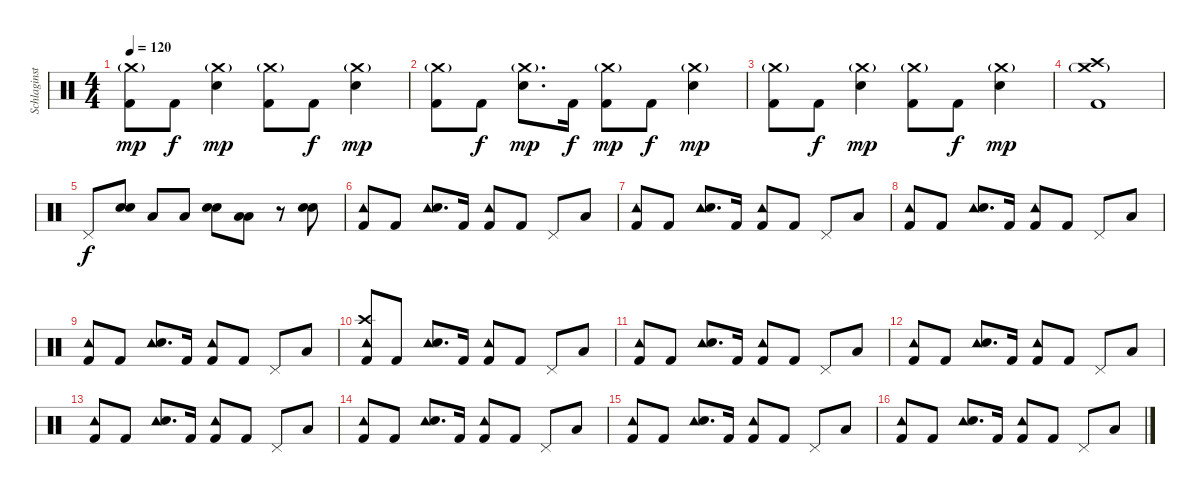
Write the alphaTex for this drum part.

\track ("Schlaginstrumente - Auswahl" "Schlaginst") {instrument percussion}
\staff {score}
\articulation defaults
\ts (4 4)
\tempo 120
\clef neutral
\ks c
("Crash medium (hit)"{g} "Kick (hit) 2").8{dy mp} "Kick (hit) 2".8{dy f} ("Crash medium (hit)"{g} "Snare (hit) 2").4{dy mp} ("Crash medium (hit)"{g} "Kick (hit) 2").8 "Kick (hit) 2".8{dy f} ("Crash medium (hit)"{g} "Snare (hit) 2").4{dy mp} |
("Crash medium (hit)"{g} "Kick (hit) 2").8 "Kick (hit) 2".8{dy f} ("Crash medium (hit)"{g} "Snare (hit) 2").8{d dy mp} "Kick (hit) 2".16{dy f} ("Crash medium (hit)"{g} "Kick (hit) 2").8{dy mp} "Kick (hit) 2".8{dy f} ("Crash medium (hit)"{g} "Snare (hit) 2").4{dy mp} |
("Crash medium (hit)"{g} "Kick (hit) 2").8 "Kick (hit) 2".8{dy f} ("Crash medium (hit)"{g} "Snare (hit) 2").4{dy mp} ("Crash medium (hit)"{g} "Kick (hit) 2").8 "Kick (hit) 2".8{dy f} ("Crash medium (hit)"{g} "Snare (hit) 2").4{dy mp} |
("Crash medium (hit)"{g} "Crash high (hit)" "Kick (hit) 2").1 |
"Pedal Hi-Hat (hit)".8{dy f} ("Snare (hit) 2" "Snare (hit) 2").8{bd 120} "Low Tom (hit)".8 "Low Floor Tom (hit)".8 ("Snare (hit) 2" "Snare (hit) 2").8{bd 120} ("Low Tom (hit)" "Low Floor Tom (hit)").8 r.8 ("Snare (hit) 2" "Snare (hit) 2").8{bd 120} |
("Tambourine (hit)" "Kick (hit) 2").8 "Kick (hit) 2".8 ("Tambourine (hit)" "Snare (hit) 2").8{d} "Kick (hit) 2".16 ("Tambourine (hit)" "Kick (hit) 2").8 "Kick (hit) 2".8 "Pedal Hi-Hat (hit)".8 "Low Tom (hit)".8 |
("Tambourine (hit)" "Kick (hit) 2").8 "Kick (hit) 2".8 ("Tambourine (hit)" "Snare (hit) 2").8{d} "Kick (hit) 2".16 ("Tambourine (hit)" "Kick (hit) 2").8 "Kick (hit) 2".8 "Pedal Hi-Hat (hit)".8 "Low Tom (hit)".8 |
("Tambourine (hit)" "Kick (hit) 2").8 "Kick (hit) 2".8 ("Tambourine (hit)" "Snare (hit) 2").8{d} "Kick (hit) 2".16 ("Tambourine (hit)" "Kick (hit) 2").8 "Kick (hit) 2".8 "Pedal Hi-Hat (hit)".8 "Low Tom (hit)".8 |
("Tambourine (hit)" "Kick (hit) 2").8 "Kick (hit) 2".8 ("Tambourine (hit)" "Snare (hit) 2").8{d} "Kick (hit) 2".16 ("Tambourine (hit)" "Kick (hit) 2").8 "Kick (hit) 2".8 "Pedal Hi-Hat (hit)".8 "Low Tom (hit)".8 |
("Crash high (hit)" "Tambourine (hit)" "Kick (hit) 2").8 "Kick (hit) 2".8 ("Tambourine (hit)" "Snare (hit) 2").8{d} "Kick (hit) 2".16 ("Tambourine (hit)" "Kick (hit) 2").8 "Kick (hit) 2".8 "Pedal Hi-Hat (hit)".8 "Low Tom (hit)".8 |
("Tambourine (hit)" "Kick (hit) 2").8 "Kick (hit) 2".8 ("Tambourine (hit)" "Snare (hit) 2").8{d} "Kick (hit) 2".16 ("Tambourine (hit)" "Kick (hit) 2").8 "Kick (hit) 2".8 "Pedal Hi-Hat (hit)".8 "Low Tom (hit)".8 |
("Tambourine (hit)" "Kick (hit) 2").8 "Kick (hit) 2".8 ("Tambourine (hit)" "Snare (hit) 2").8{d} "Kick (hit) 2".16 ("Tambourine (hit)" "Kick (hit) 2").8 "Kick (hit) 2".8 "Pedal Hi-Hat (hit)".8 "Low Tom (hit)".8 |
("Tambourine (hit)" "Kick (hit) 2").8 "Kick (hit) 2".8 ("Tambourine (hit)" "Snare (hit) 2").8{d} "Kick (hit) 2".16 ("Tambourine (hit)" "Kick (hit) 2").8 "Kick (hit) 2".8 "Pedal Hi-Hat (hit)".8 "Low Tom (hit)".8 |
("Tambourine (hit)" "Kick (hit) 2").8 "Kick (hit) 2".8 ("Tambourine (hit)" "Snare (hit) 2").8{d} "Kick (hit) 2".16 ("Tambourine (hit)" "Kick (hit) 2").8 "Kick (hit) 2".8 "Pedal Hi-Hat (hit)".8 "Low Tom (hit)".8 |
("Tambourine (hit)" "Kick (hit) 2").8 "Kick (hit) 2".8 ("Tambourine (hit)" "Snare (hit) 2").8{d} "Kick (hit) 2".16 ("Tambourine (hit)" "Kick (hit) 2").8 "Kick (hit) 2".8 "Pedal Hi-Hat (hit)".8 "Low Tom (hit)".8 |
("Tambourine (hit)" "Kick (hit) 2").8 "Kick (hit) 2".8 ("Tambourine (hit)" "Snare (hit) 2").8{d} "Kick (hit) 2".16 ("Tambourine (hit)" "Kick (hit) 2").8 "Kick (hit) 2".8 "Pedal Hi-Hat (hit)".8 "Low Tom (hit)".8
